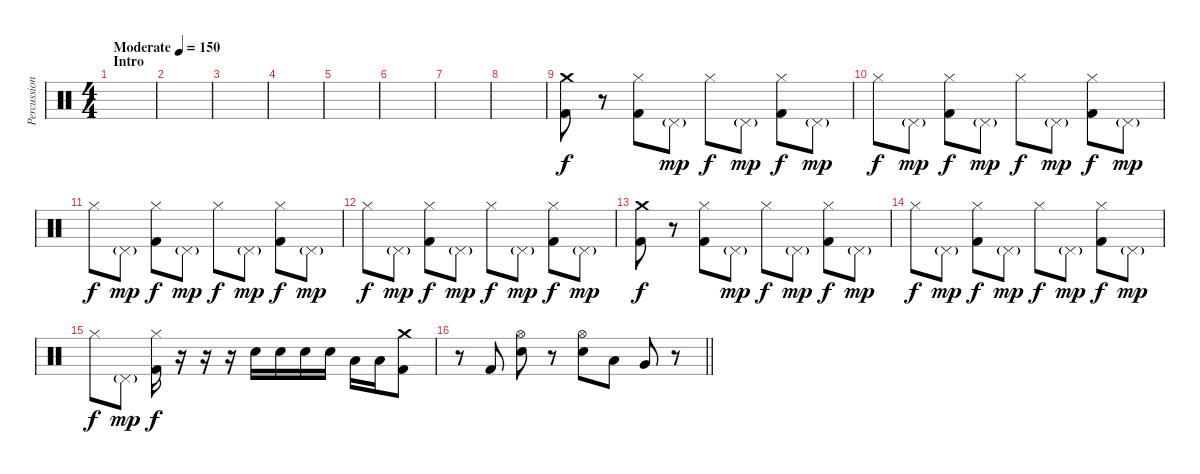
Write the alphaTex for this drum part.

\track ("Percussion" "Percussion") {instrument percussion}
\staff {score}
\articulation defaults
\ts (4 4)
\section ("" "Intro")
\tempo (150 "Moderate")
\clef neutral
\ks c
|
|
|
|
|
|
|
|
("Crash medium (hit)" "Kick (hit) 2").8 r.8 ("Hi-Hat (closed)" "Kick (hit) 2").8 "Pedal Hi-Hat (hit)"{g}.8{dy mp} "Hi-Hat (closed)".8{dy f} "Pedal Hi-Hat (hit)"{g}.8{dy mp} ("Hi-Hat (closed)" "Kick (hit) 2").8{dy f} "Pedal Hi-Hat (hit)"{g}.8{dy mp} |
"Hi-Hat (closed)".8{dy f} "Pedal Hi-Hat (hit)"{g}.8{dy mp} ("Hi-Hat (closed)" "Kick (hit) 2").8{dy f} "Pedal Hi-Hat (hit)"{g}.8{dy mp} "Hi-Hat (closed)".8{dy f} "Pedal Hi-Hat (hit)"{g}.8{dy mp} ("Hi-Hat (closed)" "Kick (hit) 2").8{dy f} "Pedal Hi-Hat (hit)"{g}.8{dy mp} |
"Hi-Hat (closed)".8{dy f} "Pedal Hi-Hat (hit)"{g}.8{dy mp} ("Hi-Hat (closed)" "Kick (hit) 2").8{dy f} "Pedal Hi-Hat (hit)"{g}.8{dy mp} "Hi-Hat (closed)".8{dy f} "Pedal Hi-Hat (hit)"{g}.8{dy mp} ("Hi-Hat (closed)" "Kick (hit) 2").8{dy f} "Pedal Hi-Hat (hit)"{g}.8{dy mp} |
"Hi-Hat (closed)".8{dy f} "Pedal Hi-Hat (hit)"{g}.8{dy mp} ("Hi-Hat (closed)" "Kick (hit) 2").8{dy f} "Pedal Hi-Hat (hit)"{g}.8{dy mp} "Hi-Hat (closed)".8{dy f} "Pedal Hi-Hat (hit)"{g}.8{dy mp} ("Hi-Hat (closed)" "Kick (hit) 2").8{dy f} "Pedal Hi-Hat (hit)"{g}.8{dy mp} |
("Crash medium (hit)" "Kick (hit) 2").8{dy f} r.8 ("Hi-Hat (closed)" "Kick (hit) 2").8 "Pedal Hi-Hat (hit)"{g}.8{dy mp} "Hi-Hat (closed)".8{dy f} "Pedal Hi-Hat (hit)"{g}.8{dy mp} ("Hi-Hat (closed)" "Kick (hit) 2").8{dy f} "Pedal Hi-Hat (hit)"{g}.8{dy mp} |
"Hi-Hat (closed)".8{dy f} "Pedal Hi-Hat (hit)"{g}.8{dy mp} ("Hi-Hat (closed)" "Kick (hit) 2").8{dy f} "Pedal Hi-Hat (hit)"{g}.8{dy mp} "Hi-Hat (closed)".8{dy f} "Pedal Hi-Hat (hit)"{g}.8{dy mp} ("Hi-Hat (closed)" "Kick (hit) 2").8{dy f} "Pedal Hi-Hat (hit)"{g}.8{dy mp} |
"Hi-Hat (closed)".8{dy f} "Pedal Hi-Hat (hit)"{g}.8{dy mp} ("Hi-Hat (closed)" "Kick (hit) 2").16{dy f} r.16 r.16 r.16 "Electric Snare (hit)".16 "Electric Snare (hit)".16 "Electric Snare (hit)".16 "Electric Snare (hit)".16 "Low Tom (hit)".16 "Low Tom (hit)".16 ("Kick (hit) 2" "Crash medium (hit)").8 |
\barLineRight lightlight
r.8 "Kick (hit) 2".8 ("Hi-Hat (open)" "Electric Snare (hit)").8 r.8 ("Hi-Hat (open)" "Electric Snare (hit)").8 "Low Tom (hit)".8 "Very Low Tom (hit)".8 r.8
